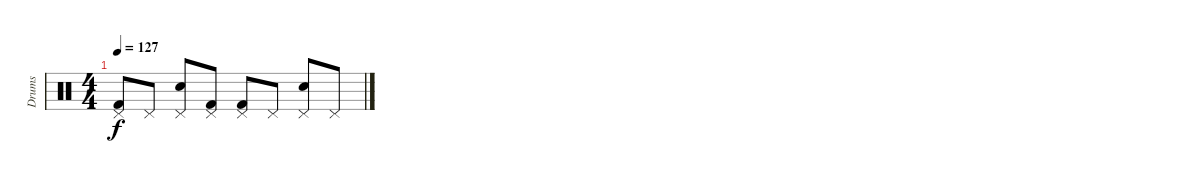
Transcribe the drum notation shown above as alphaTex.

\track ("Drums" "Drums") {instrument percussion}
\staff {score}
\articulation defaults
\ts (4 4)
\tempo 127
\clef neutral
\ks c
("Pedal Hi-Hat (hit)" "Kick (hit) 2").8{dy f} "Pedal Hi-Hat (hit)".8 ("Pedal Hi-Hat (hit)" "Snare (hit) 2").8 ("Pedal Hi-Hat (hit)" "Kick (hit) 2").8 ("Pedal Hi-Hat (hit)" "Kick (hit) 2").8 "Pedal Hi-Hat (hit)".8 ("Pedal Hi-Hat (hit)" "Snare (hit) 2").8 "Pedal Hi-Hat (hit)".8
